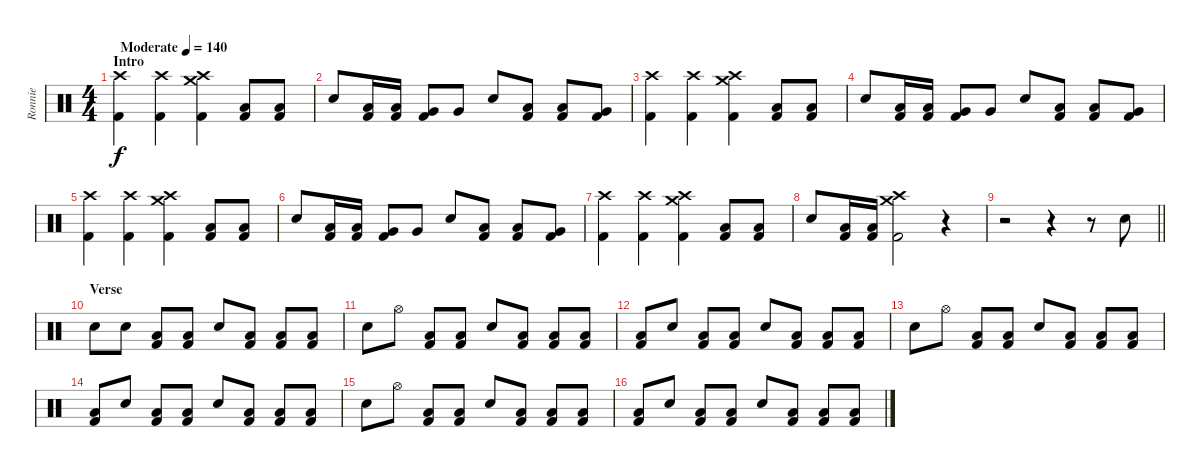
\track ("Ronnie" "Ronnie") {instrument percussion}
\staff {score}
\articulation defaults
\ts (4 4)
\section ("" "Intro")
\tempo (140 "Moderate")
\clef neutral
\ks c
("Crash high (hit)" "Kick (hit) 2").4{dy f} ("Crash high (hit)" "Kick (hit) 2").4 ("Crash medium (hit)" "Crash high (hit)" "Kick (hit) 2").4 ("Low Tom (hit)" "Kick (hit) 2").8 ("Low Tom (hit)" "Kick (hit) 2").8 |
"Electric Snare (hit)".8 ("Low Tom (hit)" "Kick (hit) 2").16 ("Low Tom (hit)" "Kick (hit) 2").16 ("Very Low Tom (hit)" "Kick (hit) 2").8 "Very Low Tom (hit)".8 "Electric Snare (hit)".8 ("Low Tom (hit)" "Kick (hit) 2").8 ("Low Tom (hit)" "Kick (hit) 2").8 ("Very Low Tom (hit)" "Kick (hit) 2").8 |
("Crash high (hit)" "Kick (hit) 2").4 ("Crash high (hit)" "Kick (hit) 2").4 ("Crash medium (hit)" "Crash high (hit)" "Kick (hit) 2").4 ("Low Tom (hit)" "Kick (hit) 2").8 ("Low Tom (hit)" "Kick (hit) 2").8 |
"Electric Snare (hit)".8 ("Low Tom (hit)" "Kick (hit) 2").16 ("Low Tom (hit)" "Kick (hit) 2").16 ("Very Low Tom (hit)" "Kick (hit) 2").8 "Very Low Tom (hit)".8 "Electric Snare (hit)".8 ("Low Tom (hit)" "Kick (hit) 2").8 ("Low Tom (hit)" "Kick (hit) 2").8 ("Very Low Tom (hit)" "Kick (hit) 2").8 |
("Crash high (hit)" "Kick (hit) 2").4 ("Crash high (hit)" "Kick (hit) 2").4 ("Crash medium (hit)" "Crash high (hit)" "Kick (hit) 2").4 ("Low Tom (hit)" "Kick (hit) 2").8 ("Low Tom (hit)" "Kick (hit) 2").8 |
"Electric Snare (hit)".8 ("Low Tom (hit)" "Kick (hit) 2").16 ("Low Tom (hit)" "Kick (hit) 2").16 ("Very Low Tom (hit)" "Kick (hit) 2").8 "Very Low Tom (hit)".8 "Electric Snare (hit)".8 ("Low Tom (hit)" "Kick (hit) 2").8 ("Low Tom (hit)" "Kick (hit) 2").8 ("Very Low Tom (hit)" "Kick (hit) 2").8 |
("Crash high (hit)" "Kick (hit) 2").4 ("Crash high (hit)" "Kick (hit) 2").4 ("Crash medium (hit)" "Crash high (hit)" "Kick (hit) 2").4 ("Low Tom (hit)" "Kick (hit) 2").8 ("Low Tom (hit)" "Kick (hit) 2").8 |
"Electric Snare (hit)".8 ("Low Tom (hit)" "Kick (hit) 2").16 ("Low Tom (hit)" "Kick (hit) 2").16 ("Crash medium (hit)" "Crash high (hit)" "Kick (hit) 2").2 r.4 |
\barLineRight lightlight
r.2 r.4 r.8 "Electric Snare (hit)".8 |
\section ("" "Verse")
"Electric Snare (hit)".8 "Electric Snare (hit)".8 ("Low Tom (hit)" "Kick (hit) 2").8 ("Low Tom (hit)" "Kick (hit) 2").8 "Electric Snare (hit)".8 ("Low Tom (hit)" "Kick (hit) 2").8 ("Low Tom (hit)" "Kick (hit) 2").8 ("Low Tom (hit)" "Kick (hit) 2").8 |
"Electric Snare (hit)".8 "Hi-Hat (open)".8 ("Low Tom (hit)" "Kick (hit) 2").8 ("Low Tom (hit)" "Kick (hit) 2").8 "Electric Snare (hit)".8 ("Low Tom (hit)" "Kick (hit) 2").8 ("Low Tom (hit)" "Kick (hit) 2").8 ("Low Tom (hit)" "Kick (hit) 2").8 |
("Low Tom (hit)" "Kick (hit) 2").8 "Electric Snare (hit)".8 ("Low Tom (hit)" "Kick (hit) 2").8 ("Low Tom (hit)" "Kick (hit) 2").8 "Electric Snare (hit)".8 ("Low Tom (hit)" "Kick (hit) 2").8 ("Low Tom (hit)" "Kick (hit) 2").8 ("Low Tom (hit)" "Kick (hit) 2").8 |
"Electric Snare (hit)".8 "Hi-Hat (open)".8 ("Low Tom (hit)" "Kick (hit) 2").8 ("Low Tom (hit)" "Kick (hit) 2").8 "Electric Snare (hit)".8 ("Low Tom (hit)" "Kick (hit) 2").8 ("Low Tom (hit)" "Kick (hit) 2").8 ("Low Tom (hit)" "Kick (hit) 2").8 |
("Low Tom (hit)" "Kick (hit) 2").8 "Electric Snare (hit)".8 ("Low Tom (hit)" "Kick (hit) 2").8 ("Low Tom (hit)" "Kick (hit) 2").8 "Electric Snare (hit)".8 ("Low Tom (hit)" "Kick (hit) 2").8 ("Low Tom (hit)" "Kick (hit) 2").8 ("Low Tom (hit)" "Kick (hit) 2").8 |
"Electric Snare (hit)".8 "Hi-Hat (open)".8 ("Low Tom (hit)" "Kick (hit) 2").8 ("Low Tom (hit)" "Kick (hit) 2").8 "Electric Snare (hit)".8 ("Low Tom (hit)" "Kick (hit) 2").8 ("Low Tom (hit)" "Kick (hit) 2").8 ("Low Tom (hit)" "Kick (hit) 2").8 |
("Low Tom (hit)" "Kick (hit) 2").8 "Electric Snare (hit)".8 ("Low Tom (hit)" "Kick (hit) 2").8 ("Low Tom (hit)" "Kick (hit) 2").8 "Electric Snare (hit)".8 ("Low Tom (hit)" "Kick (hit) 2").8 ("Low Tom (hit)" "Kick (hit) 2").8 ("Low Tom (hit)" "Kick (hit) 2").8
